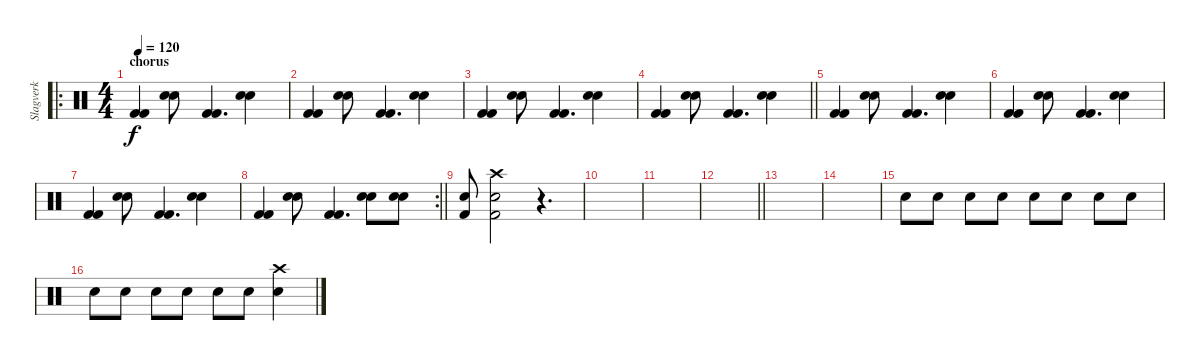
\track ("Slagverk" "Slagverk") {instrument percussion}
\staff {score}
\articulation defaults
\ro
\ts (4 4)
\section ("" "chorus")
\tempo 120
\clef neutral
\ks c
("Kick (hit) 2" "Kick (hit) 2").4{dy f} ("Snare (hit) 2" "Snare (hit) 2").8 ("Kick (hit) 2" "Kick (hit) 2").4{d} ("Snare (hit) 2" "Snare (hit) 2").4 |
("Kick (hit) 2" "Kick (hit) 2").4 ("Snare (hit) 2" "Snare (hit) 2").8 ("Kick (hit) 2" "Kick (hit) 2").4{d} ("Snare (hit) 2" "Snare (hit) 2").4 |
("Kick (hit) 2" "Kick (hit) 2").4 ("Snare (hit) 2" "Snare (hit) 2").8 ("Kick (hit) 2" "Kick (hit) 2").4{d} ("Snare (hit) 2" "Snare (hit) 2").4 |
\barLineRight lightlight
("Kick (hit) 2" "Kick (hit) 2").4 ("Snare (hit) 2" "Snare (hit) 2").8 ("Kick (hit) 2" "Kick (hit) 2").4{d} ("Snare (hit) 2" "Snare (hit) 2").4 |
("Kick (hit) 2" "Kick (hit) 2").4 ("Snare (hit) 2" "Snare (hit) 2").8 ("Kick (hit) 2" "Kick (hit) 2").4{d} ("Snare (hit) 2" "Snare (hit) 2").4 |
("Kick (hit) 2" "Kick (hit) 2").4 ("Snare (hit) 2" "Snare (hit) 2").8 ("Kick (hit) 2" "Kick (hit) 2").4{d} ("Snare (hit) 2" "Snare (hit) 2").4 |
("Kick (hit) 2" "Kick (hit) 2").4 ("Snare (hit) 2" "Snare (hit) 2").8 ("Kick (hit) 2" "Kick (hit) 2").4{d} ("Snare (hit) 2" "Snare (hit) 2").4 |
\rc 2
\barLineRight lightlight
("Kick (hit) 2" "Kick (hit) 2").4 ("Snare (hit) 2" "Snare (hit) 2").8 ("Kick (hit) 2" "Kick (hit) 2").4{d} ("Snare (hit) 2" "Snare (hit) 2").8 ("Snare (hit) 2" "Snare (hit) 2").8 |
("Snare (hit) 2" "Kick (hit) 2").8 ("Crash high (hit)" "Kick (hit) 2" "Snare (hit) 2").2 r.4{d} |
|
|
\barLineRight lightlight
|
|
|
"Snare (hit) 2".8 "Snare (hit) 2".8 "Snare (hit) 2".8 "Snare (hit) 2".8 "Snare (hit) 2".8 "Snare (hit) 2".8 "Snare (hit) 2".8 "Snare (hit) 2".8 |
"Snare (hit) 2".8 "Snare (hit) 2".8 "Snare (hit) 2".8 "Snare (hit) 2".8 "Snare (hit) 2".8 "Snare (hit) 2".8 ("Snare (hit) 2" "Crash high (hit)").4
